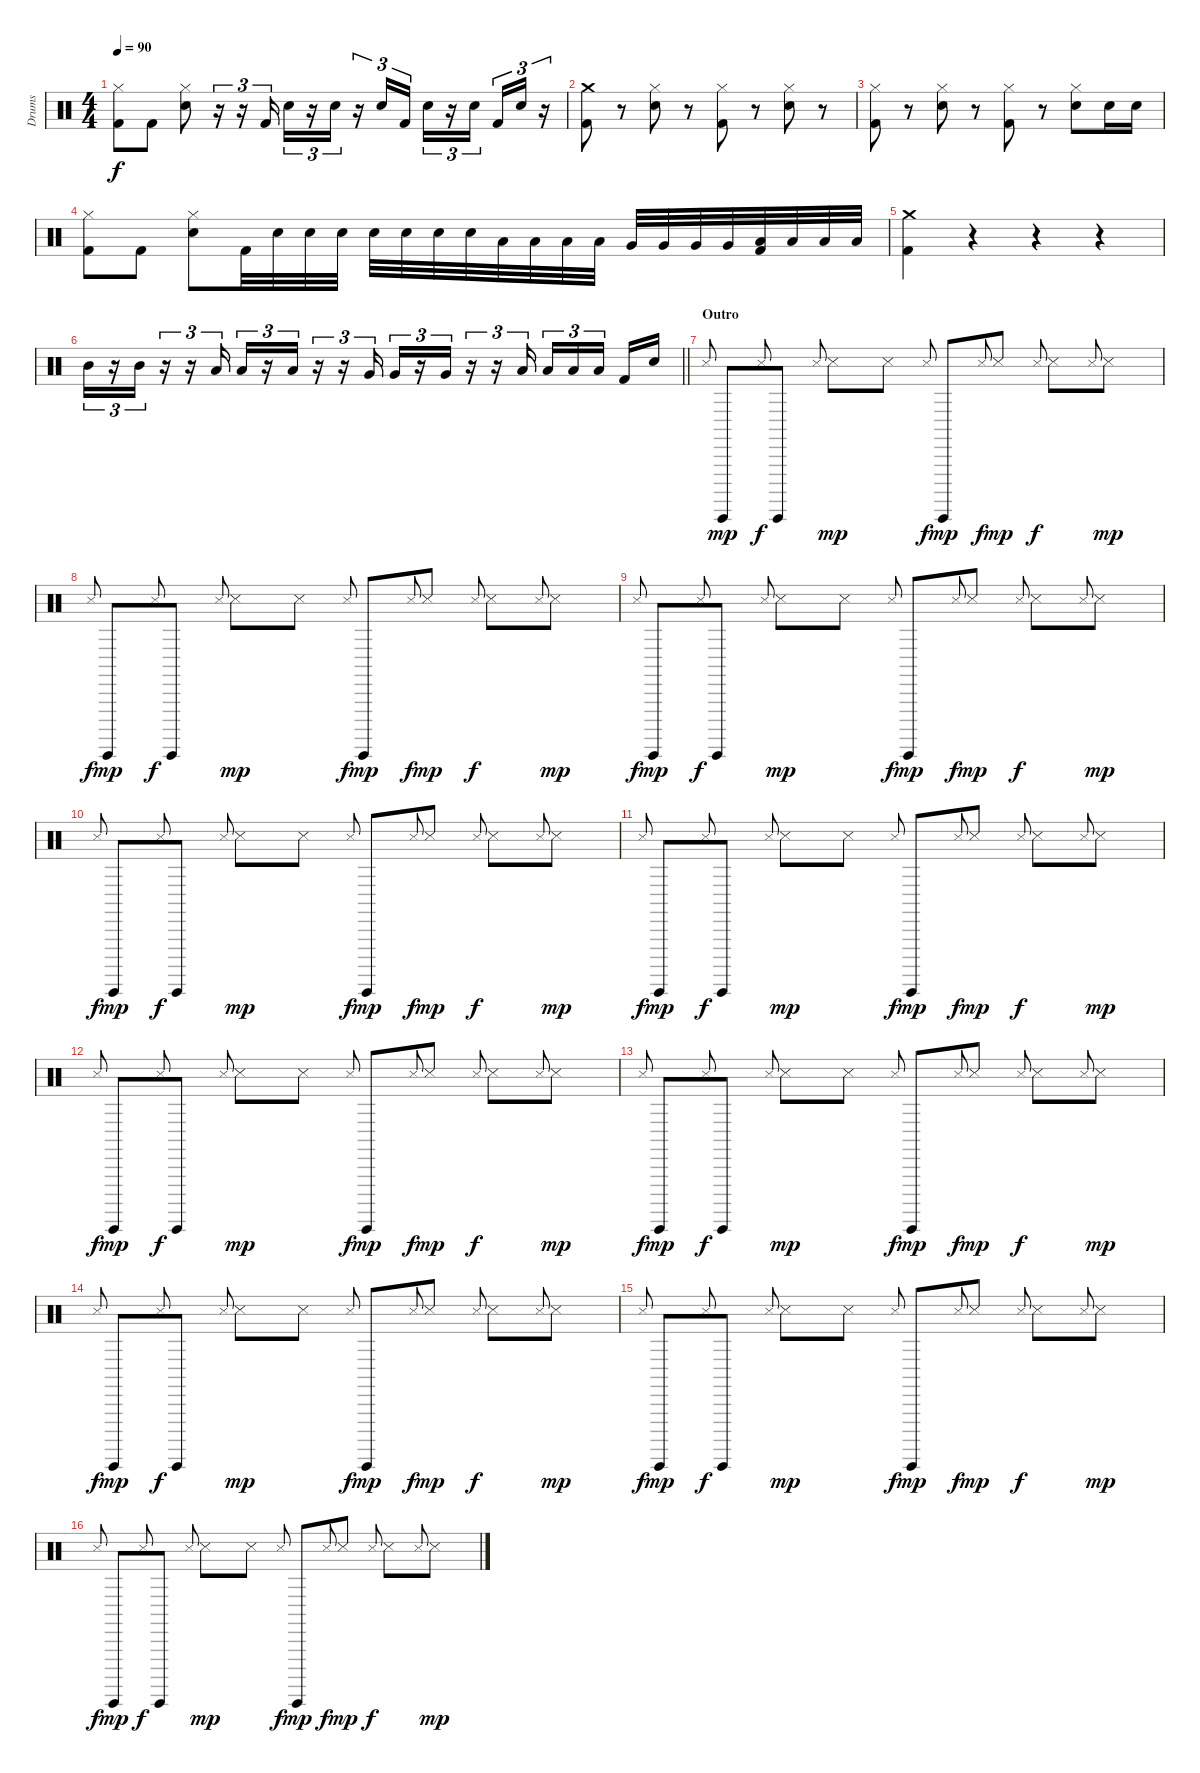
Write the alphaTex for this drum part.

\track ("Drums" "Drums") {instrument percussion}
\staff {score}
\articulation defaults
\ts (4 4)
\tempo 90
\clef neutral
\ks c
("Hi-Hat (closed)" "Kick (hit) 2").8{dy f} "Kick (hit) 2".8 ("Hi-Hat (closed)" "Snare (hit) 2").8 r.16{tu (3 2)} r.16{tu (3 2)} "Kick (hit) 2".16{tu (3 2)} "Snare (hit) 2".16{tu (3 2)} r.16{tu (3 2)} "Snare (hit) 2".16{tu (3 2)} r.16{tu (3 2)} "Snare (hit) 2".16{tu (3 2)} "Kick (hit) 2".16{tu (3 2)} "Snare (hit) 2".16{tu (3 2)} r.16{tu (3 2)} "Snare (hit) 2".16{tu (3 2) beam splitsecondary} "Kick (hit) 2".16{tu (3 2)} "Snare (hit) 2".16{tu (3 2)} r.16{tu (3 2)} |
("Crash medium (hit)" "Kick (hit) 2").8 r.8 ("Hi-Hat (closed)" "Snare (hit) 2").8 r.8 ("Hi-Hat (closed)" "Kick (hit) 2").8 r.8 ("Hi-Hat (closed)" "Snare (hit) 2").8 r.8 |
("Hi-Hat (closed)" "Kick (hit) 2").8 r.8 ("Hi-Hat (closed)" "Snare (hit) 2").8 r.8 ("Hi-Hat (closed)" "Kick (hit) 2").8 r.8 ("Hi-Hat (closed)" "Snare (hit) 2").8 "Snare (hit) 2".16 "Snare (hit) 2".16 |
("Hi-Hat (closed)" "Kick (hit) 2").8 "Kick (hit) 2".8 ("Hi-Hat (closed)" "Snare (hit) 2").8 "Kick (hit) 2".32 "Snare (hit) 2".32 "Snare (hit) 2".32 "Snare (hit) 2".32 "Snare (hit) 2".32 "Snare (hit) 2".32 "Snare (hit) 2".32 "Snare (hit) 2".32 "Low Tom (hit)".32 "Low Tom (hit)".32 "Low Tom (hit)".32 "Low Tom (hit)".32 "Very Low Tom (hit)".32 "Very Low Tom (hit)".32 "Very Low Tom (hit)".32 "Very Low Tom (hit)".32 ("Low Floor Tom (hit)" "Kick (hit) 2").32 "Low Floor Tom (hit)".32 "Low Floor Tom (hit)".32 "Low Floor Tom (hit)".32 |
("Crash medium (hit)" "Kick (hit) 2").4 r.4 r.4 r.4 |
\barLineRight lightlight "Mid Tom (hit)".16{tu (3 2)}
r.16{tu (3 2)} "Mid Tom (hit)".16{tu (3 2)} r.16{tu (3 2)} r.16{tu (3 2)} "Low Tom (hit)".16{tu (3 2)} "Low Tom (hit)".16{tu (3 2)} r.16{tu (3 2)} "Low Tom (hit)".16{tu (3 2)} r.16{tu (3 2)} r.16{tu (3 2)} "Very Low Tom (hit)".16{tu (3 2)} "Very Low Tom (hit)".16{tu (3 2)} r.16{tu (3 2)} "Very Low Tom (hit)".16{tu (3 2)} r.16{tu (3 2)} r.16{tu (3 2)} "Low Floor Tom (hit)".16{tu (3 2)} "Low Floor Tom (hit)".16{tu (3 2)} "Low Floor Tom (hit)".16{tu (3 2)} "Low Floor Tom (hit)".16{tu (3 2) beam splitsecondary} "Kick (hit) 2".16 "Snare (hit) 2".16 |
\section ("" "Outro")
"Snare (side stick) 3".8{gr onbeat} "Guiro (hit)".8{dy mp} "Snare (side stick) 3".8{gr onbeat dy f} "Guiro (hit)".8 "Snare (side stick) 3".8{gr onbeat} "Snare (side stick) 3".8{dy mp} "Snare (side stick) 3".8 "Snare (side stick) 3".8{gr onbeat dy f} "Guiro (hit)".8{dy mp} "Snare (side stick) 3".8{gr onbeat dy f} "Snare (side stick) 3".8{dy mp} "Snare (side stick) 3".8{gr onbeat dy f} "Snare (side stick) 3".8 "Snare (side stick) 3".8{gr onbeat} "Snare (side stick) 3".8{dy mp} |
"Snare (side stick) 3".8{gr onbeat dy f} "Guiro (hit)".8{dy mp} "Snare (side stick) 3".8{gr onbeat dy f} "Guiro (hit)".8 "Snare (side stick) 3".8{gr onbeat} "Snare (side stick) 3".8{dy mp} "Snare (side stick) 3".8 "Snare (side stick) 3".8{gr onbeat dy f} "Guiro (hit)".8{dy mp} "Snare (side stick) 3".8{gr onbeat dy f} "Snare (side stick) 3".8{dy mp} "Snare (side stick) 3".8{gr onbeat dy f} "Snare (side stick) 3".8 "Snare (side stick) 3".8{gr onbeat} "Snare (side stick) 3".8{dy mp} |
"Snare (side stick) 3".8{gr onbeat dy f} "Guiro (hit)".8{dy mp} "Snare (side stick) 3".8{gr onbeat dy f} "Guiro (hit)".8 "Snare (side stick) 3".8{gr onbeat} "Snare (side stick) 3".8{dy mp} "Snare (side stick) 3".8 "Snare (side stick) 3".8{gr onbeat dy f} "Guiro (hit)".8{dy mp} "Snare (side stick) 3".8{gr onbeat dy f} "Snare (side stick) 3".8{dy mp} "Snare (side stick) 3".8{gr onbeat dy f} "Snare (side stick) 3".8 "Snare (side stick) 3".8{gr onbeat} "Snare (side stick) 3".8{dy mp} |
"Snare (side stick) 3".8{gr onbeat dy f} "Guiro (hit)".8{dy mp} "Snare (side stick) 3".8{gr onbeat dy f} "Guiro (hit)".8 "Snare (side stick) 3".8{gr onbeat} "Snare (side stick) 3".8{dy mp} "Snare (side stick) 3".8 "Snare (side stick) 3".8{gr onbeat dy f} "Guiro (hit)".8{dy mp} "Snare (side stick) 3".8{gr onbeat dy f} "Snare (side stick) 3".8{dy mp} "Snare (side stick) 3".8{gr onbeat dy f} "Snare (side stick) 3".8 "Snare (side stick) 3".8{gr onbeat} "Snare (side stick) 3".8{dy mp} |
"Snare (side stick) 3".8{gr onbeat dy f} "Guiro (hit)".8{dy mp} "Snare (side stick) 3".8{gr onbeat dy f} "Guiro (hit)".8 "Snare (side stick) 3".8{gr onbeat} "Snare (side stick) 3".8{dy mp} "Snare (side stick) 3".8 "Snare (side stick) 3".8{gr onbeat dy f} "Guiro (hit)".8{dy mp} "Snare (side stick) 3".8{gr onbeat dy f} "Snare (side stick) 3".8{dy mp} "Snare (side stick) 3".8{gr onbeat dy f} "Snare (side stick) 3".8 "Snare (side stick) 3".8{gr onbeat} "Snare (side stick) 3".8{dy mp} |
"Snare (side stick) 3".8{gr onbeat dy f} "Guiro (hit)".8{dy mp} "Snare (side stick) 3".8{gr onbeat dy f} "Guiro (hit)".8 "Snare (side stick) 3".8{gr onbeat} "Snare (side stick) 3".8{dy mp} "Snare (side stick) 3".8 "Snare (side stick) 3".8{gr onbeat dy f} "Guiro (hit)".8{dy mp} "Snare (side stick) 3".8{gr onbeat dy f} "Snare (side stick) 3".8{dy mp} "Snare (side stick) 3".8{gr onbeat dy f} "Snare (side stick) 3".8 "Snare (side stick) 3".8{gr onbeat} "Snare (side stick) 3".8{dy mp} |
"Snare (side stick) 3".8{gr onbeat dy f} "Guiro (hit)".8{dy mp} "Snare (side stick) 3".8{gr onbeat dy f} "Guiro (hit)".8 "Snare (side stick) 3".8{gr onbeat} "Snare (side stick) 3".8{dy mp} "Snare (side stick) 3".8 "Snare (side stick) 3".8{gr onbeat dy f} "Guiro (hit)".8{dy mp} "Snare (side stick) 3".8{gr onbeat dy f} "Snare (side stick) 3".8{dy mp} "Snare (side stick) 3".8{gr onbeat dy f} "Snare (side stick) 3".8 "Snare (side stick) 3".8{gr onbeat} "Snare (side stick) 3".8{dy mp} |
"Snare (side stick) 3".8{gr onbeat dy f} "Guiro (hit)".8{dy mp} "Snare (side stick) 3".8{gr onbeat dy f} "Guiro (hit)".8 "Snare (side stick) 3".8{gr onbeat} "Snare (side stick) 3".8{dy mp} "Snare (side stick) 3".8 "Snare (side stick) 3".8{gr onbeat dy f} "Guiro (hit)".8{dy mp} "Snare (side stick) 3".8{gr onbeat dy f} "Snare (side stick) 3".8{dy mp} "Snare (side stick) 3".8{gr onbeat dy f} "Snare (side stick) 3".8 "Snare (side stick) 3".8{gr onbeat} "Snare (side stick) 3".8{dy mp} |
"Snare (side stick) 3".8{gr onbeat dy f} "Guiro (hit)".8{dy mp} "Snare (side stick) 3".8{gr onbeat dy f} "Guiro (hit)".8 "Snare (side stick) 3".8{gr onbeat} "Snare (side stick) 3".8{dy mp} "Snare (side stick) 3".8 "Snare (side stick) 3".8{gr onbeat dy f} "Guiro (hit)".8{dy mp} "Snare (side stick) 3".8{gr onbeat dy f} "Snare (side stick) 3".8{dy mp} "Snare (side stick) 3".8{gr onbeat dy f} "Snare (side stick) 3".8 "Snare (side stick) 3".8{gr onbeat} "Snare (side stick) 3".8{dy mp} |
"Snare (side stick) 3".8{gr onbeat dy f} "Guiro (hit)".8{dy mp} "Snare (side stick) 3".8{gr onbeat dy f} "Guiro (hit)".8 "Snare (side stick) 3".8{gr onbeat} "Snare (side stick) 3".8{dy mp} "Snare (side stick) 3".8 "Snare (side stick) 3".8{gr onbeat dy f} "Guiro (hit)".8{dy mp} "Snare (side stick) 3".8{gr onbeat dy f} "Snare (side stick) 3".8{dy mp} "Snare (side stick) 3".8{gr onbeat dy f} "Snare (side stick) 3".8 "Snare (side stick) 3".8{gr onbeat} "Snare (side stick) 3".8{dy mp}
